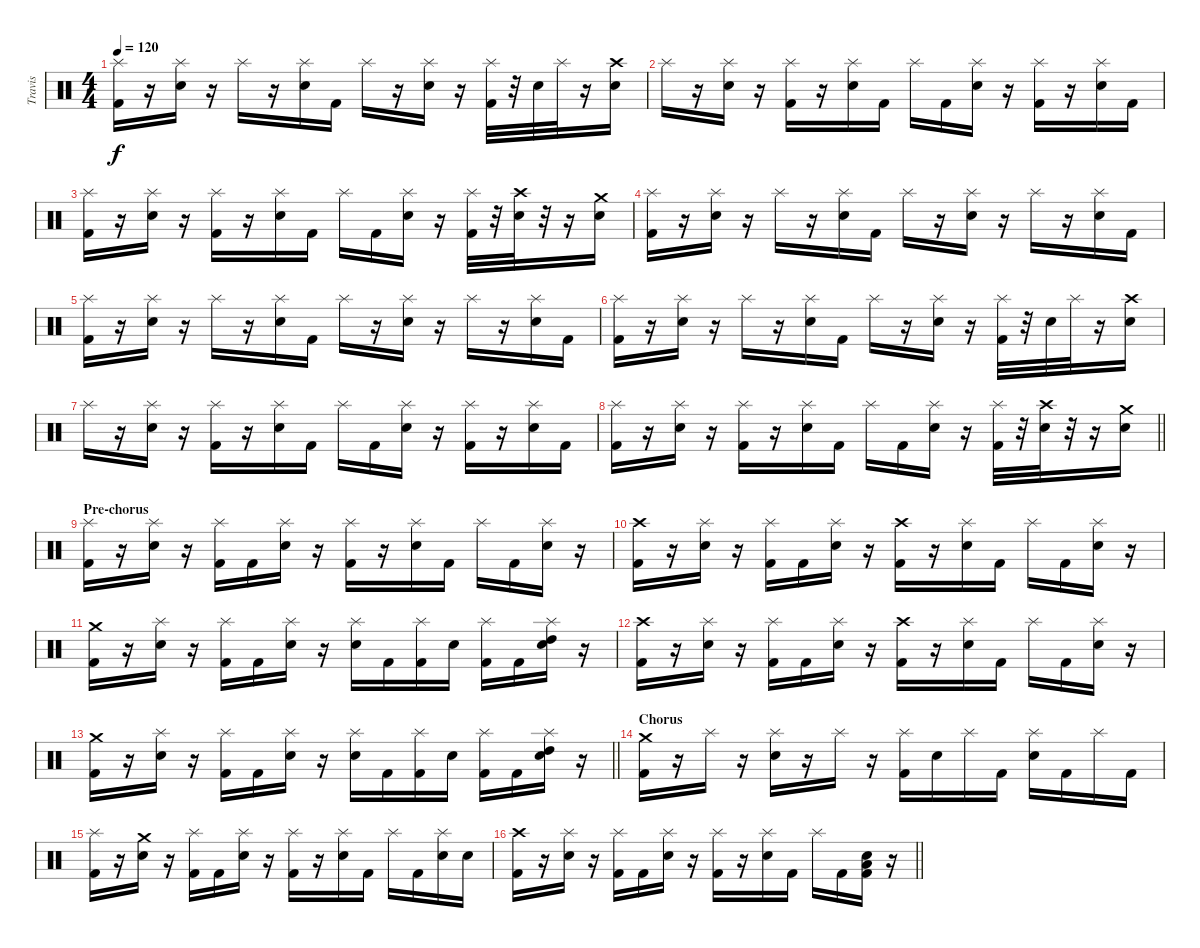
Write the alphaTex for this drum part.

\track ("Travis" "Travis") {instrument percussion}
\staff {score}
\articulation defaults
\ts (4 4)
\tempo 120
\clef neutral
\ks c
("Splash (hit)" "Kick (hit) 2").16{dy f} r.16 ("Splash (hit)" "Electric Snare (hit)").16 r.16 "Splash (hit)".16 r.16 ("Splash (hit)" "Electric Snare (hit)").16 "Kick (hit) 2".16 "Splash (hit)".16 r.16 ("Splash (hit)" "Electric Snare (hit)").16 r.16 ("Splash (hit)" "Kick (hit) 2").32 r.32 "Electric Snare (hit)".32 "Splash (hit)".32 r.16 ("Crash high (hit)" "Electric Snare (hit)").16 |
"Splash (hit)".16 r.16 ("Splash (hit)" "Electric Snare (hit)").16 r.16 ("Splash (hit)" "Kick (hit) 2").16 r.16 ("Splash (hit)" "Electric Snare (hit)").16 "Kick (hit) 2".16 "Splash (hit)".16 "Kick (hit) 2".16 ("Splash (hit)" "Electric Snare (hit)").16 r.16 ("Splash (hit)" "Kick (hit) 2").16 r.16 ("Splash (hit)" "Electric Snare (hit)").16 "Kick (hit) 2".16 |
("Splash (hit)" "Kick (hit) 2").16 r.16 ("Splash (hit)" "Electric Snare (hit)").16 r.16 ("Splash (hit)" "Kick (hit) 2").16 r.16 ("Splash (hit)" "Electric Snare (hit)").16 "Kick (hit) 2".16 "Splash (hit)".16 "Kick (hit) 2".16 ("Splash (hit)" "Electric Snare (hit)").16 r.16 ("Splash (hit)" "Kick (hit) 2").32 r.32 ("Crash high (hit)" "Electric Snare (hit)").32 r.32 r.16 ("Crash medium (hit)" "Electric Snare (hit)").16 |
("Splash (hit)" "Kick (hit) 2").16 r.16 ("Splash (hit)" "Electric Snare (hit)").16 r.16 "Splash (hit)".16 r.16 ("Splash (hit)" "Electric Snare (hit)").16 "Kick (hit) 2".16 "Splash (hit)".16 r.16 ("Splash (hit)" "Electric Snare (hit)").16 r.16 "Splash (hit)".16 r.16 ("Splash (hit)" "Electric Snare (hit)").16 "Kick (hit) 2".16 |
("Splash (hit)" "Kick (hit) 2").16 r.16 ("Splash (hit)" "Electric Snare (hit)").16 r.16 "Splash (hit)".16 r.16 ("Splash (hit)" "Electric Snare (hit)").16 "Kick (hit) 2".16 "Splash (hit)".16 r.16 ("Splash (hit)" "Electric Snare (hit)").16 r.16 "Splash (hit)".16 r.16 ("Splash (hit)" "Electric Snare (hit)").16 "Kick (hit) 2".16 |
("Splash (hit)" "Kick (hit) 2").16 r.16 ("Splash (hit)" "Electric Snare (hit)").16 r.16 "Splash (hit)".16 r.16 ("Splash (hit)" "Electric Snare (hit)").16 "Kick (hit) 2".16 "Splash (hit)".16 r.16 ("Splash (hit)" "Electric Snare (hit)").16 r.16 ("Splash (hit)" "Kick (hit) 2").32 r.32 "Electric Snare (hit)".32 "Splash (hit)".32 r.16 ("Crash high (hit)" "Electric Snare (hit)").16 |
"Splash (hit)".16 r.16 ("Splash (hit)" "Electric Snare (hit)").16 r.16 ("Splash (hit)" "Kick (hit) 2").16 r.16 ("Splash (hit)" "Electric Snare (hit)").16 "Kick (hit) 2".16 "Splash (hit)".16 "Kick (hit) 2".16 ("Splash (hit)" "Electric Snare (hit)").16 r.16 ("Splash (hit)" "Kick (hit) 2").16 r.16 ("Splash (hit)" "Electric Snare (hit)").16 "Kick (hit) 2".16 |
\barLineRight lightlight
("Splash (hit)" "Kick (hit) 2").16 r.16 ("Splash (hit)" "Electric Snare (hit)").16 r.16 ("Splash (hit)" "Kick (hit) 2").16 r.16 ("Splash (hit)" "Electric Snare (hit)").16 "Kick (hit) 2".16 "Splash (hit)".16 "Kick (hit) 2".16 ("Splash (hit)" "Electric Snare (hit)").16 r.16 ("Splash (hit)" "Kick (hit) 2").32 r.32 ("Crash high (hit)" "Electric Snare (hit)").32 r.32 r.16 ("Crash medium (hit)" "Electric Snare (hit)").16 |
\section ("" "Pre-chorus")
("Splash (hit)" "Kick (hit) 2").16 r.16 ("Splash (hit)" "Electric Snare (hit)").16 r.16 ("Splash (hit)" "Kick (hit) 2").16 "Kick (hit) 2".16 ("Splash (hit)" "Electric Snare (hit)").16 r.16 ("Splash (hit)" "Kick (hit) 2").16 r.16 ("Splash (hit)" "Electric Snare (hit)").16 "Kick (hit) 2".16 "Splash (hit)".16 "Kick (hit) 2".16 ("Splash (hit)" "Electric Snare (hit)").16 r.16 |
("Crash high (hit)" "Kick (hit) 2").16 r.16 ("Splash (hit)" "Electric Snare (hit)").16 r.16 ("Splash (hit)" "Kick (hit) 2").16 "Kick (hit) 2".16 ("Splash (hit)" "Electric Snare (hit)").16 r.16 ("Crash high (hit)" "Kick (hit) 2").16 r.16 ("Splash (hit)" "Electric Snare (hit)").16 "Kick (hit) 2".16 "Splash (hit)".16 "Kick (hit) 2".16 ("Splash (hit)" "Electric Snare (hit)").16 r.16 |
("Crash medium (hit)" "Kick (hit) 2").16 r.16 ("Splash (hit)" "Electric Snare (hit)").16 r.16 ("Splash (hit)" "Kick (hit) 2").16 "Kick (hit) 2".16 ("Splash (hit)" "Electric Snare (hit)").16 r.16 ("Splash (hit)" "Electric Snare (hit)").16 "Kick (hit) 2".16 ("Splash (hit)" "Kick (hit) 2").16 "Electric Snare (hit)".16 ("Splash (hit)" "Kick (hit) 2").16 "Kick (hit) 2".16 ("Splash (hit)" "High Tom (hit)" "Electric Snare (hit)").16 r.16 |
("Crash high (hit)" "Kick (hit) 2").16 r.16 ("Splash (hit)" "Electric Snare (hit)").16 r.16 ("Splash (hit)" "Kick (hit) 2").16 "Kick (hit) 2".16 ("Splash (hit)" "Electric Snare (hit)").16 r.16 ("Crash high (hit)" "Kick (hit) 2").16 r.16 ("Splash (hit)" "Electric Snare (hit)").16 "Kick (hit) 2".16 "Splash (hit)".16 "Kick (hit) 2".16 ("Splash (hit)" "Electric Snare (hit)").16 r.16 |
\barLineRight lightlight
("Crash medium (hit)" "Kick (hit) 2").16 r.16 ("Splash (hit)" "Electric Snare (hit)").16 r.16 ("Splash (hit)" "Kick (hit) 2").16 "Kick (hit) 2".16 ("Splash (hit)" "Electric Snare (hit)").16 r.16 ("Splash (hit)" "Electric Snare (hit)").16 "Kick (hit) 2".16 ("Splash (hit)" "Kick (hit) 2").16 "Electric Snare (hit)".16 ("Splash (hit)" "Kick (hit) 2").16 "Kick (hit) 2".16 ("Splash (hit)" "High Tom (hit)" "Electric Snare (hit)").16 r.16 |
\section ("" "Chorus")
("Crash medium (hit)" "Kick (hit) 2").16 r.16 "Splash (hit)".16 r.16 ("Splash (hit)" "Electric Snare (hit)").16 r.16 "Splash (hit)".16 r.16 ("Splash (hit)" "Kick (hit) 2").16 "Electric Snare (hit)".16 "Splash (hit)".16 "Kick (hit) 2".16 ("Splash (hit)" "Electric Snare (hit)").16 "Kick (hit) 2".16 "Splash (hit)".16 "Kick (hit) 2".16 |
("Splash (hit)" "Kick (hit) 2").16 r.16 ("Crash medium (hit)" "Electric Snare (hit)").16 r.16 ("Splash (hit)" "Kick (hit) 2").16 "Kick (hit) 2".16 ("Splash (hit)" "Electric Snare (hit)").16 r.16 ("Splash (hit)" "Kick (hit) 2").16 r.16 ("Splash (hit)" "Electric Snare (hit)").16 "Kick (hit) 2".16 "Splash (hit)".16 "Kick (hit) 2".16 ("Splash (hit)" "Electric Snare (hit)").16 "Electric Snare (hit)".16 |
\barLineRight lightlight
("Crash high (hit)" "Kick (hit) 2").16 r.16 ("Splash (hit)" "Electric Snare (hit)").16 r.16 ("Splash (hit)" "Kick (hit) 2").16 "Kick (hit) 2".16 ("Splash (hit)" "Electric Snare (hit)").16 r.16 ("Splash (hit)" "Kick (hit) 2").16 r.16 ("Splash (hit)" "Electric Snare (hit)").16 "Kick (hit) 2".16 "Splash (hit)".16 "Kick (hit) 2".16 ("Low Floor Tom (hit)" "Electric Snare (hit)" "Kick (hit) 2").16 r.16
